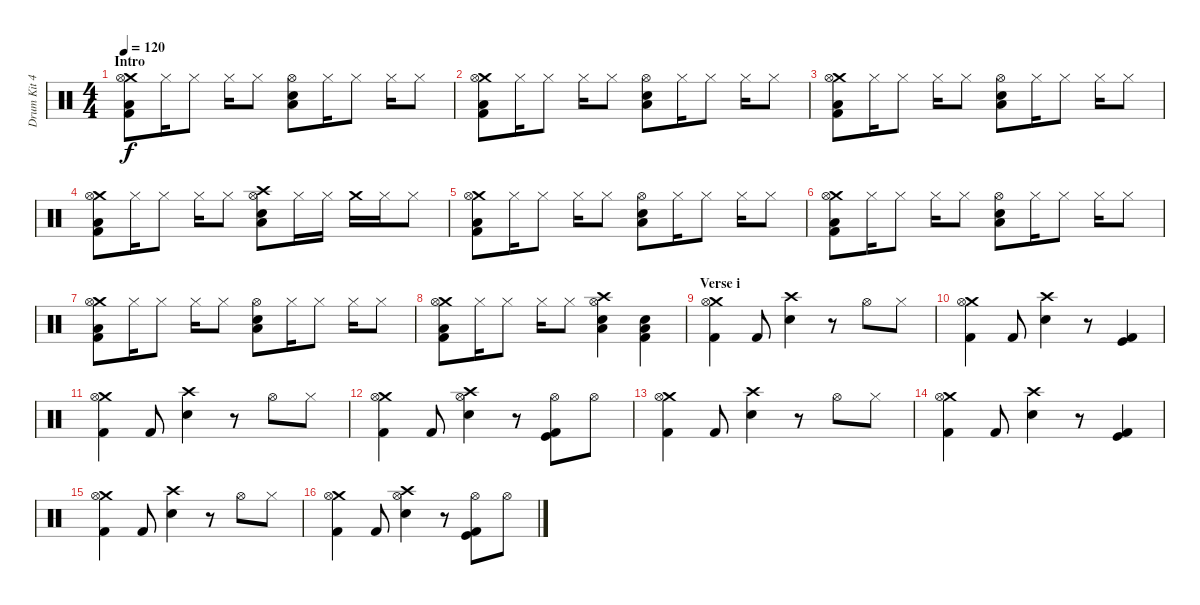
\track ("Drum Kit 42" "Drum Kit 4") {instrument percussion}
\staff {score}
\articulation defaults
\ts (4 4)
\section ("" "Intro")
\tempo 120
\clef neutral
\ks c
("Crash medium (hit)" "Hi-Hat (open)" "Low Tom (hit)" "Kick (hit) 2").8{dy f} "Hi-Hat (closed)".16 "Hi-Hat (closed)".8 "Hi-Hat (closed)".16 "Hi-Hat (closed)".8 ("Hi-Hat (open)" "Low Tom (hit)" "Snare (hit) 2").8 "Hi-Hat (closed)".16 "Hi-Hat (closed)".8 "Hi-Hat (closed)".16 "Hi-Hat (closed)".8 |
("Crash medium (hit)" "Hi-Hat (open)" "Low Tom (hit)" "Kick (hit) 2").8 "Hi-Hat (closed)".16 "Hi-Hat (closed)".8 "Hi-Hat (closed)".16 "Hi-Hat (closed)".8 ("Hi-Hat (open)" "Low Tom (hit)" "Snare (hit) 2").8 "Hi-Hat (closed)".16 "Hi-Hat (closed)".8 "Hi-Hat (closed)".16 "Hi-Hat (closed)".8 |
("Crash medium (hit)" "Hi-Hat (open)" "Low Tom (hit)" "Kick (hit) 2").8 "Hi-Hat (closed)".16 "Hi-Hat (closed)".8 "Hi-Hat (closed)".16 "Hi-Hat (closed)".8 ("Hi-Hat (open)" "Low Tom (hit)" "Snare (hit) 2").8 "Hi-Hat (closed)".16 "Hi-Hat (closed)".8 "Hi-Hat (closed)".16 "Hi-Hat (closed)".8 |
("Crash medium (hit)" "Hi-Hat (open)" "Low Tom (hit)" "Kick (hit) 2").8 "Hi-Hat (closed)".16 "Hi-Hat (closed)".8 "Hi-Hat (closed)".16 "Hi-Hat (closed)".8 ("Crash high (hit)" "Hi-Hat (open)" "Low Tom (hit)" "Snare (hit) 2").8 "Hi-Hat (closed)".16 "Hi-Hat (closed)".16 "Crash medium (hit)".16 "Hi-Hat (closed)".16 "Hi-Hat (closed)".8 |
("Crash medium (hit)" "Hi-Hat (open)" "Low Tom (hit)" "Kick (hit) 2").8 "Hi-Hat (closed)".16 "Hi-Hat (closed)".8 "Hi-Hat (closed)".16 "Hi-Hat (closed)".8 ("Hi-Hat (open)" "Low Tom (hit)" "Snare (hit) 2").8 "Hi-Hat (closed)".16 "Hi-Hat (closed)".8 "Hi-Hat (closed)".16 "Hi-Hat (closed)".8 |
("Crash medium (hit)" "Hi-Hat (open)" "Low Tom (hit)" "Kick (hit) 2").8 "Hi-Hat (closed)".16 "Hi-Hat (closed)".8 "Hi-Hat (closed)".16 "Hi-Hat (closed)".8 ("Hi-Hat (open)" "Low Tom (hit)" "Snare (hit) 2").8 "Hi-Hat (closed)".16 "Hi-Hat (closed)".8 "Hi-Hat (closed)".16 "Hi-Hat (closed)".8 |
("Crash medium (hit)" "Hi-Hat (open)" "Low Tom (hit)" "Kick (hit) 2").8 "Hi-Hat (closed)".16 "Hi-Hat (closed)".8 "Hi-Hat (closed)".16 "Hi-Hat (closed)".8 ("Hi-Hat (open)" "Low Tom (hit)" "Snare (hit) 2").8 "Hi-Hat (closed)".16 "Hi-Hat (closed)".8 "Hi-Hat (closed)".16 "Hi-Hat (closed)".8 |
("Crash medium (hit)" "Hi-Hat (open)" "Low Tom (hit)" "Kick (hit) 2").8 "Hi-Hat (closed)".16 "Hi-Hat (closed)".8 "Hi-Hat (closed)".16 "Hi-Hat (closed)".8 ("Crash high (hit)" "Hi-Hat (open)" "Low Tom (hit)" "Snare (hit) 2").4 ("Snare (hit) 2" "Low Tom (hit)" "Kick (hit) 2").4 |
\section ("" "Verse i")
("Crash medium (hit)" "Hi-Hat (open)" "Kick (hit) 2").4 "Kick (hit) 2".8 ("Crash high (hit)" "Snare (hit) 2").4 r.8 "Hi-Hat (open)".8 "Hi-Hat (closed)".8 |
("Crash medium (hit)" "Hi-Hat (open)" "Kick (hit) 2").4 "Kick (hit) 2".8 ("Crash high (hit)" "Snare (hit) 2").4 r.8 ("Kick (hit)" "Kick (hit) 2").4 |
("Crash medium (hit)" "Hi-Hat (open)" "Kick (hit) 2").4 "Kick (hit) 2".8 ("Crash high (hit)" "Snare (hit) 2").4 r.8 "Hi-Hat (open)".8 "Hi-Hat (closed)".8 |
("Crash medium (hit)" "Hi-Hat (open)" "Kick (hit) 2").4 "Kick (hit) 2".8 ("Crash high (hit)" "Hi-Hat (open)" "Snare (hit) 2").4 r.8 ("Hi-Hat (open)" "Kick (hit)" "Kick (hit) 2").8 "Hi-Hat (open)".8 |
("Crash medium (hit)" "Hi-Hat (open)" "Kick (hit) 2").4 "Kick (hit) 2".8 ("Crash high (hit)" "Snare (hit) 2").4 r.8 "Hi-Hat (open)".8 "Hi-Hat (closed)".8 |
("Crash medium (hit)" "Hi-Hat (open)" "Kick (hit) 2").4 "Kick (hit) 2".8 ("Crash high (hit)" "Snare (hit) 2").4 r.8 ("Kick (hit)" "Kick (hit) 2").4 |
("Crash medium (hit)" "Hi-Hat (open)" "Kick (hit) 2").4 "Kick (hit) 2".8 ("Crash high (hit)" "Snare (hit) 2").4 r.8 "Hi-Hat (open)".8 "Hi-Hat (closed)".8 |
("Crash medium (hit)" "Hi-Hat (open)" "Kick (hit) 2").4 "Kick (hit) 2".8 ("Crash high (hit)" "Hi-Hat (open)" "Snare (hit) 2").4 r.8 ("Hi-Hat (open)" "Kick (hit)" "Kick (hit) 2").8 "Hi-Hat (open)".8
